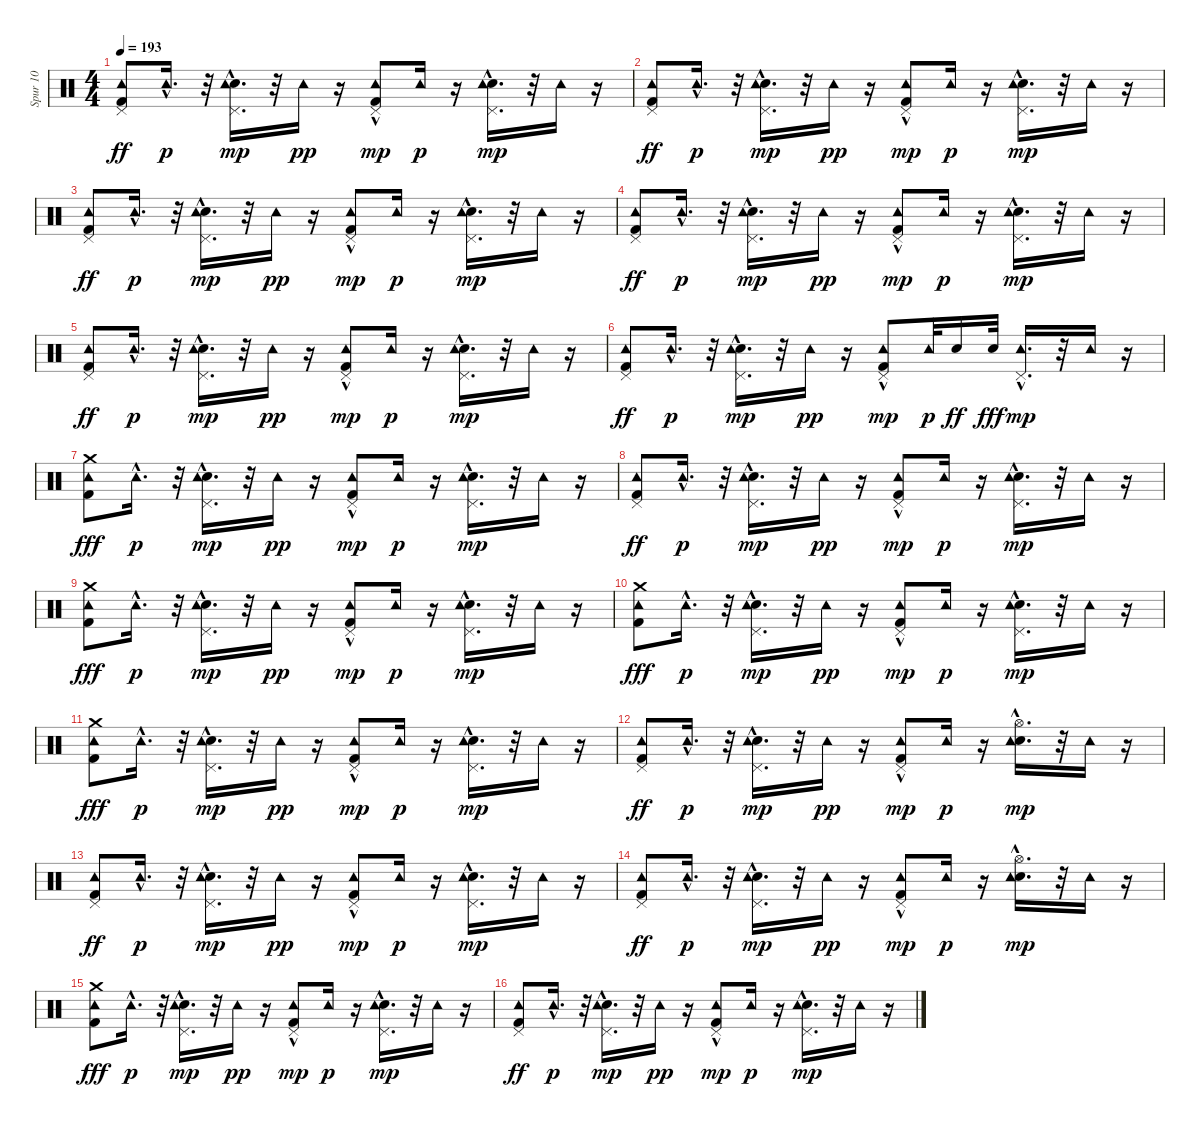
\track ("Spur 10" "Spur 10") {instrument percussion}
\staff {score}
\articulation defaults
\ts (4 4)
\tempo 193
\clef neutral
\ks c
("Tambourine (hit)" "Kick (hit) 2" "Pedal Hi-Hat (hit)").8{dy ff} "Tambourine (hit)"{hac}.16{d dy p} r.32 ("Pedal Hi-Hat (hit)" "Snare (hit) 2"{hac} "Tambourine (hit)").16{d dy mp} r.32 "Tambourine (hit)".16{dy pp} r.16 ("Kick (hit) 2" "Pedal Hi-Hat (hit)" "Tambourine (hit)"{hac}).8{dy mp} "Tambourine (hit)".16{dy p} r.16 ("Snare (hit) 2"{hac} "Pedal Hi-Hat (hit)"{hac} "Tambourine (hit)").16{d dy mp} r.32 "Tambourine (hit)".16 r.16 |
("Tambourine (hit)" "Kick (hit) 2" "Pedal Hi-Hat (hit)").8{dy ff} "Tambourine (hit)"{hac}.16{d dy p} r.32 ("Pedal Hi-Hat (hit)" "Snare (hit) 2"{hac} "Tambourine (hit)").16{d dy mp} r.32 "Tambourine (hit)".16{dy pp} r.16 ("Kick (hit) 2" "Pedal Hi-Hat (hit)" "Tambourine (hit)"{hac}).8{dy mp} "Tambourine (hit)".16{dy p} r.16 ("Snare (hit) 2"{hac} "Pedal Hi-Hat (hit)"{hac} "Tambourine (hit)").16{d dy mp} r.32 "Tambourine (hit)".16 r.16 |
("Tambourine (hit)" "Kick (hit) 2" "Pedal Hi-Hat (hit)").8{dy ff} "Tambourine (hit)"{hac}.16{d dy p} r.32 ("Pedal Hi-Hat (hit)" "Snare (hit) 2"{hac} "Tambourine (hit)").16{d dy mp} r.32 "Tambourine (hit)".16{dy pp} r.16 ("Kick (hit) 2" "Pedal Hi-Hat (hit)" "Tambourine (hit)"{hac}).8{dy mp} "Tambourine (hit)".16{dy p} r.16 ("Snare (hit) 2"{hac} "Pedal Hi-Hat (hit)"{hac} "Tambourine (hit)").16{d dy mp} r.32 "Tambourine (hit)".16 r.16 |
("Tambourine (hit)" "Kick (hit) 2" "Pedal Hi-Hat (hit)").8{dy ff} "Tambourine (hit)"{hac}.16{d dy p} r.32 ("Pedal Hi-Hat (hit)" "Snare (hit) 2"{hac} "Tambourine (hit)").16{d dy mp} r.32 "Tambourine (hit)".16{dy pp} r.16 ("Kick (hit) 2" "Pedal Hi-Hat (hit)" "Tambourine (hit)"{hac}).8{dy mp} "Tambourine (hit)".16{dy p} r.16 ("Snare (hit) 2"{hac} "Pedal Hi-Hat (hit)"{hac} "Tambourine (hit)").16{d dy mp} r.32 "Tambourine (hit)".16 r.16 |
("Tambourine (hit)" "Kick (hit) 2" "Pedal Hi-Hat (hit)").8{dy ff} "Tambourine (hit)"{hac}.16{d dy p} r.32 ("Pedal Hi-Hat (hit)" "Snare (hit) 2"{hac} "Tambourine (hit)").16{d dy mp} r.32 "Tambourine (hit)".16{dy pp} r.16 ("Kick (hit) 2" "Pedal Hi-Hat (hit)" "Tambourine (hit)"{hac}).8{dy mp} "Tambourine (hit)".16{dy p} r.16 ("Snare (hit) 2"{hac} "Pedal Hi-Hat (hit)"{hac} "Tambourine (hit)").16{d dy mp} r.32 "Tambourine (hit)".16 r.16 |
("Tambourine (hit)" "Kick (hit) 2" "Pedal Hi-Hat (hit)").8{dy ff} "Tambourine (hit)"{hac}.16{d dy p} r.32 ("Pedal Hi-Hat (hit)" "Snare (hit) 2"{hac} "Tambourine (hit)").16{d dy mp} r.32 "Tambourine (hit)".16{dy pp} r.16 ("Kick (hit) 2" "Pedal Hi-Hat (hit)" "Tambourine (hit)"{hac}).8{dy mp} "Tambourine (hit)".32{dy p} "Snare (hit) 2".16{dy ff} "Snare (hit) 2".32{dy fff} ("Pedal Hi-Hat (hit)"{hac} "Tambourine (hit)").16{d dy mp} r.32 "Tambourine (hit)".16 r.16 |
("Tambourine (hit)" "Kick (hit) 2" "Crash medium (hit)").8{dy fff} "Tambourine (hit)"{hac}.16{d dy p} r.32 ("Pedal Hi-Hat (hit)" "Snare (hit) 2"{hac} "Tambourine (hit)").16{d dy mp} r.32 "Tambourine (hit)".16{dy pp} r.16 ("Kick (hit) 2" "Pedal Hi-Hat (hit)" "Tambourine (hit)"{hac}).8{dy mp} "Tambourine (hit)".16{dy p} r.16 ("Snare (hit) 2"{hac} "Pedal Hi-Hat (hit)"{hac} "Tambourine (hit)").16{d dy mp} r.32 "Tambourine (hit)".16 r.16 |
("Tambourine (hit)" "Kick (hit) 2" "Pedal Hi-Hat (hit)").8{dy ff} "Tambourine (hit)"{hac}.16{d dy p} r.32 ("Pedal Hi-Hat (hit)" "Snare (hit) 2"{hac} "Tambourine (hit)").16{d dy mp} r.32 "Tambourine (hit)".16{dy pp} r.16 ("Kick (hit) 2" "Pedal Hi-Hat (hit)" "Tambourine (hit)"{hac}).8{dy mp} "Tambourine (hit)".16{dy p} r.16 ("Snare (hit) 2"{hac} "Pedal Hi-Hat (hit)"{hac} "Tambourine (hit)").16{d dy mp} r.32 "Tambourine (hit)".16 r.16 |
("Tambourine (hit)" "Kick (hit) 2" "Crash medium (hit)").8{dy fff} "Tambourine (hit)"{hac}.16{d dy p} r.32 ("Pedal Hi-Hat (hit)" "Snare (hit) 2"{hac} "Tambourine (hit)").16{d dy mp} r.32 "Tambourine (hit)".16{dy pp} r.16 ("Kick (hit) 2" "Pedal Hi-Hat (hit)" "Tambourine (hit)"{hac}).8{dy mp} "Tambourine (hit)".16{dy p} r.16 ("Snare (hit) 2"{hac} "Pedal Hi-Hat (hit)"{hac} "Tambourine (hit)").16{d dy mp} r.32 "Tambourine (hit)".16 r.16 |
("Tambourine (hit)" "Kick (hit) 2" "Crash medium (hit)").8{dy fff} "Tambourine (hit)"{hac}.16{d dy p} r.32 ("Pedal Hi-Hat (hit)" "Snare (hit) 2"{hac} "Tambourine (hit)").16{d dy mp} r.32 "Tambourine (hit)".16{dy pp} r.16 ("Kick (hit) 2" "Pedal Hi-Hat (hit)" "Tambourine (hit)"{hac}).8{dy mp} "Tambourine (hit)".16{dy p} r.16 ("Snare (hit) 2"{hac} "Pedal Hi-Hat (hit)"{hac} "Tambourine (hit)").16{d dy mp} r.32 "Tambourine (hit)".16 r.16 |
("Tambourine (hit)" "Kick (hit) 2" "Crash medium (hit)").8{dy fff} "Tambourine (hit)"{hac}.16{d dy p} r.32 ("Pedal Hi-Hat (hit)" "Snare (hit) 2"{hac} "Tambourine (hit)").16{d dy mp} r.32 "Tambourine (hit)".16{dy pp} r.16 ("Kick (hit) 2" "Pedal Hi-Hat (hit)" "Tambourine (hit)"{hac}).8{dy mp} "Tambourine (hit)".16{dy p} r.16 ("Snare (hit) 2"{hac} "Pedal Hi-Hat (hit)"{hac} "Tambourine (hit)").16{d dy mp} r.32 "Tambourine (hit)".16 r.16 |
("Tambourine (hit)" "Kick (hit) 2" "Pedal Hi-Hat (hit)").8{dy ff} "Tambourine (hit)"{hac}.16{d dy p} r.32 ("Pedal Hi-Hat (hit)" "Snare (hit) 2"{hac} "Tambourine (hit)").16{d dy mp} r.32 "Tambourine (hit)".16{dy pp} r.16 ("Kick (hit) 2" "Pedal Hi-Hat (hit)" "Tambourine (hit)"{hac}).8{dy mp} "Tambourine (hit)".16{dy p} r.16 ("Snare (hit) 2"{hac} "Hi-Hat (open)"{hac} "Tambourine (hit)").16{d dy mp} r.32 "Tambourine (hit)".16 r.16 |
("Tambourine (hit)" "Kick (hit) 2" "Pedal Hi-Hat (hit)").8{dy ff} "Tambourine (hit)"{hac}.16{d dy p} r.32 ("Pedal Hi-Hat (hit)" "Snare (hit) 2"{hac} "Tambourine (hit)").16{d dy mp} r.32 "Tambourine (hit)".16{dy pp} r.16 ("Kick (hit) 2" "Pedal Hi-Hat (hit)" "Tambourine (hit)"{hac}).8{dy mp} "Tambourine (hit)".16{dy p} r.16 ("Snare (hit) 2"{hac} "Pedal Hi-Hat (hit)"{hac} "Tambourine (hit)").16{d dy mp} r.32 "Tambourine (hit)".16 r.16 |
("Tambourine (hit)" "Kick (hit) 2" "Pedal Hi-Hat (hit)").8{dy ff} "Tambourine (hit)"{hac}.16{d dy p} r.32 ("Pedal Hi-Hat (hit)" "Snare (hit) 2"{hac} "Tambourine (hit)").16{d dy mp} r.32 "Tambourine (hit)".16{dy pp} r.16 ("Kick (hit) 2" "Pedal Hi-Hat (hit)" "Tambourine (hit)"{hac}).8{dy mp} "Tambourine (hit)".16{dy p} r.16 ("Snare (hit) 2"{hac} "Hi-Hat (open)"{hac} "Tambourine (hit)").16{d dy mp} r.32 "Tambourine (hit)".16 r.16 |
("Tambourine (hit)" "Kick (hit) 2" "Crash medium (hit)").8{dy fff} "Tambourine (hit)"{hac}.16{d dy p} r.32 ("Pedal Hi-Hat (hit)" "Snare (hit) 2"{hac} "Tambourine (hit)").16{d dy mp} r.32 "Tambourine (hit)".16{dy pp} r.16 ("Kick (hit) 2" "Pedal Hi-Hat (hit)" "Tambourine (hit)"{hac}).8{dy mp} "Tambourine (hit)".16{dy p} r.16 ("Snare (hit) 2"{hac} "Pedal Hi-Hat (hit)"{hac} "Tambourine (hit)").16{d dy mp} r.32 "Tambourine (hit)".16 r.16 |
("Tambourine (hit)" "Kick (hit) 2" "Pedal Hi-Hat (hit)").8{dy ff} "Tambourine (hit)"{hac}.16{d dy p} r.32 ("Pedal Hi-Hat (hit)" "Snare (hit) 2"{hac} "Tambourine (hit)").16{d dy mp} r.32 "Tambourine (hit)".16{dy pp} r.16 ("Kick (hit) 2" "Pedal Hi-Hat (hit)" "Tambourine (hit)"{hac}).8{dy mp} "Tambourine (hit)".16{dy p} r.16 ("Snare (hit) 2"{hac} "Pedal Hi-Hat (hit)"{hac} "Tambourine (hit)").16{d dy mp} r.32 "Tambourine (hit)".16 r.16
